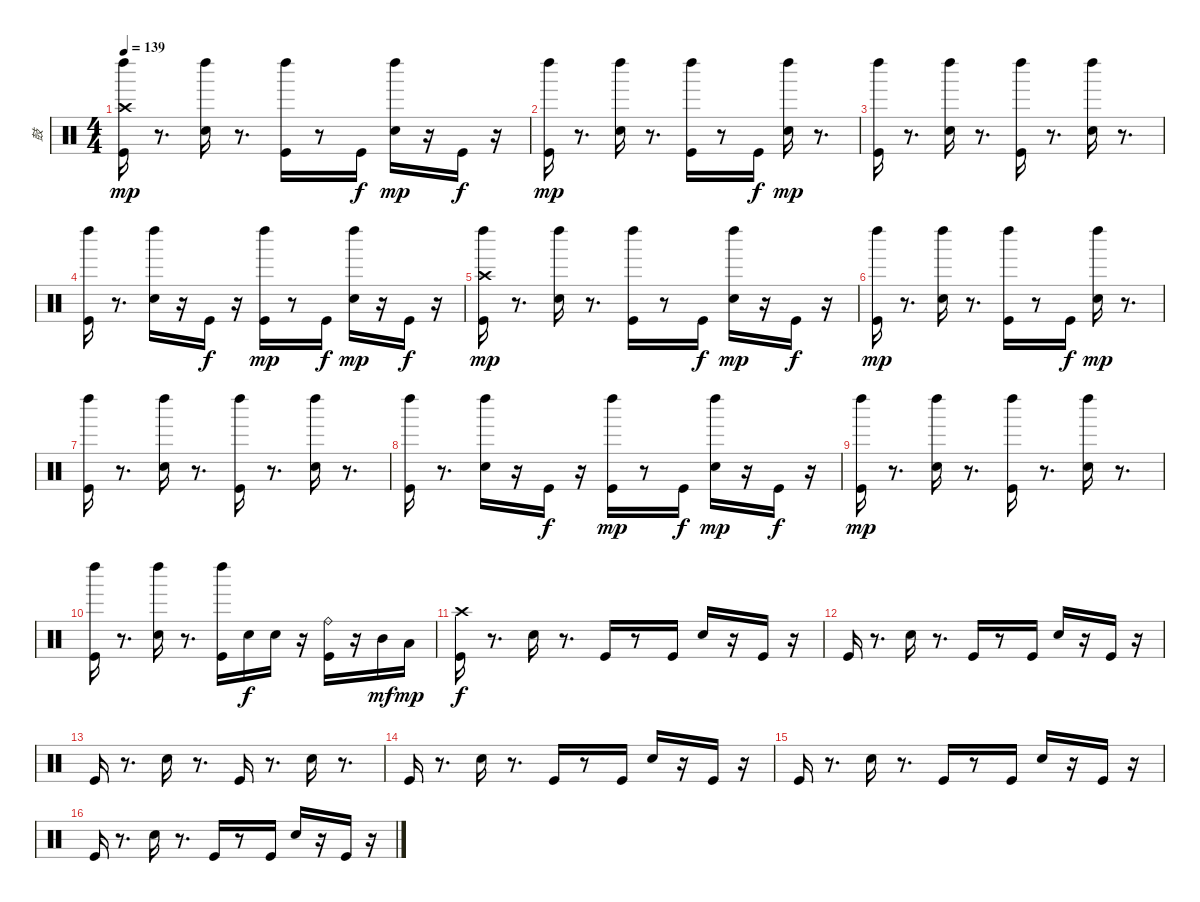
\track ("鼓" "鼓") {instrument percussion}
\staff {score}
\articulation defaults
\ts (4 4)
\tempo 139
\clef neutral
\ks c
("Crash high (hit)" "Kick (hit)" "Left Maraca (hit)").16{dy mp} r.8{d} ("Left Maraca (hit)" "Electric Snare (hit)").16 r.8{d} ("Kick (hit)" "Left Maraca (hit)").16 r.8 "Kick (hit)".16{dy f} ("Electric Snare (hit)" "Left Maraca (hit)").16{dy mp} r.16 "Kick (hit)".16{dy f} r.16 |
("Left Maraca (hit)" "Kick (hit)").16{dy mp} r.8{d} ("Left Maraca (hit)" "Electric Snare (hit)").16 r.8{d} ("Left Maraca (hit)" "Kick (hit)").16 r.8 "Kick (hit)".16{dy f} ("Left Maraca (hit)" "Electric Snare (hit)").16{dy mp} r.8{d} |
("Kick (hit)" "Left Maraca (hit)").16 r.8{d} ("Left Maraca (hit)" "Electric Snare (hit)").16 r.8{d} ("Kick (hit)" "Left Maraca (hit)").16 r.8{d} ("Left Maraca (hit)" "Electric Snare (hit)").16 r.8{d} |
("Left Maraca (hit)" "Kick (hit)").16 r.8{d} ("Electric Snare (hit)" "Left Maraca (hit)").16 r.16 "Kick (hit)".16{dy f} r.16 ("Kick (hit)" "Left Maraca (hit)").16{dy mp} r.8 "Kick (hit)".16{dy f} ("Left Maraca (hit)" "Electric Snare (hit)").16{dy mp} r.16 "Kick (hit)".16{dy f} r.16 |
("Kick (hit)" "Crash high (hit)" "Left Maraca (hit)").16{dy mp} r.8{d} ("Left Maraca (hit)" "Electric Snare (hit)").16 r.8{d} ("Kick (hit)" "Left Maraca (hit)").16 r.8 "Kick (hit)".16{dy f} ("Electric Snare (hit)" "Left Maraca (hit)").16{dy mp} r.16 "Kick (hit)".16{dy f} r.16 |
("Left Maraca (hit)" "Kick (hit)").16{dy mp} r.8{d} ("Electric Snare (hit)" "Left Maraca (hit)").16 r.8{d} ("Left Maraca (hit)" "Kick (hit)").16 r.8 "Kick (hit)".16{dy f} ("Left Maraca (hit)" "Electric Snare (hit)").16{dy mp} r.8{d} |
("Kick (hit)" "Left Maraca (hit)").16 r.8{d} ("Left Maraca (hit)" "Electric Snare (hit)").16 r.8{d} ("Kick (hit)" "Left Maraca (hit)").16 r.8{d} ("Left Maraca (hit)" "Electric Snare (hit)").16 r.8{d} |
("Kick (hit)" "Left Maraca (hit)").16 r.8{d} ("Left Maraca (hit)" "Electric Snare (hit)").16 r.16 "Kick (hit)".16{dy f} r.16 ("Left Maraca (hit)" "Kick (hit)").16{dy mp} r.8 "Kick (hit)".16{dy f} ("Left Maraca (hit)" "Electric Snare (hit)").16{dy mp} r.16 "Kick (hit)".16{dy f} r.16 |
("Kick (hit)" "Left Maraca (hit)").16{dy mp} r.8{d} ("Electric Snare (hit)" "Left Maraca (hit)").16 r.8{d} ("Kick (hit)" "Left Maraca (hit)").16 r.8{d} ("Electric Snare (hit)" "Left Maraca (hit)").16 r.8{d} |
("Left Maraca (hit)" "Kick (hit)").16 r.8{d} ("Left Maraca (hit)" "Electric Snare (hit)").16 r.8{d} ("Kick (hit)" "Left Maraca (hit)").16 "Electric Snare (hit)".16{dy f} "Electric Snare (hit)".16 r.16 ("Ride (bell)" "Kick (hit)").16 r.16 "Mid Tom (hit)".16{dy mf balance 12} "Low Tom (hit)".16{dy mp} |
("Crash high (hit)" "Kick (hit)").16{dy f balance 8} r.8{d} "Electric Snare (hit)".16{balance 10} r.8{d} "Kick (hit)".16{balance 8} r.8 "Kick (hit)".16 "Electric Snare (hit)".16{balance 10} r.16 "Kick (hit)".16{balance 8} r.16 |
"Kick (hit)".16 r.8{d} "Electric Snare (hit)".16{balance 10} r.8{d} "Kick (hit)".16{balance 8} r.8 "Kick (hit)".16 "Electric Snare (hit)".16{balance 10} r.16 "Kick (hit)".16{balance 8} r.16 |
"Kick (hit)".16 r.8{d} "Electric Snare (hit)".16{balance 10} r.8{d} "Kick (hit)".16{balance 8} r.8{d} "Electric Snare (hit)".16{balance 10} r.8{d} |
"Kick (hit)".16{balance 8} r.8{d} "Electric Snare (hit)".16{balance 10} r.8{d} "Kick (hit)".16{balance 8} r.8 "Kick (hit)".16 "Electric Snare (hit)".16{balance 10} r.16 "Kick (hit)".16{balance 8} r.16 |
"Kick (hit)".16 r.8{d} "Electric Snare (hit)".16{balance 10} r.8{d} "Kick (hit)".16{balance 8} r.8 "Kick (hit)".16 "Electric Snare (hit)".16{balance 10} r.16 "Kick (hit)".16{balance 8} r.16 |
"Kick (hit)".16 r.8{d} "Electric Snare (hit)".16{balance 10} r.8{d} "Kick (hit)".16{balance 8} r.8 "Kick (hit)".16 "Electric Snare (hit)".16{balance 10} r.16 "Kick (hit)".16{balance 8} r.16
